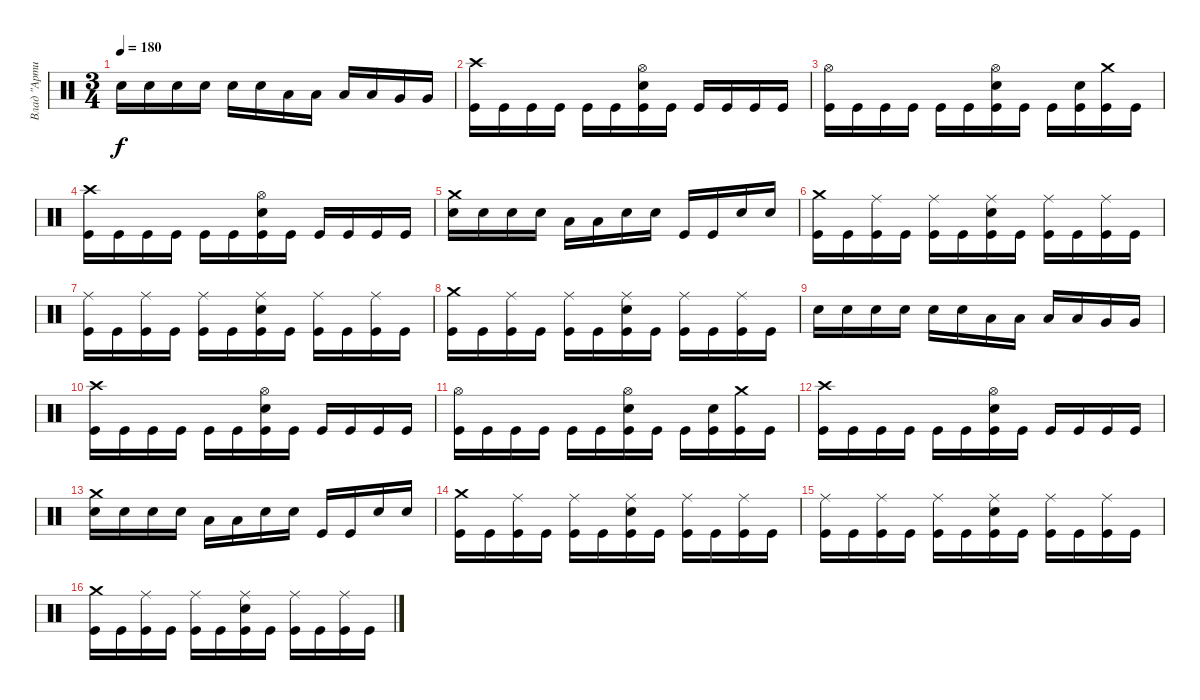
\track ("Влад \"Артист\"" "Влад \"Арти") {instrument percussion}
\staff {score}
\articulation defaults
\ts (3 4)
\tempo 180
\clef neutral
\ks c "Snare (hit) 2".16{dy f} "Snare (hit) 2".16 "Snare (hit) 2".16 "Snare (hit) 2".16 "Snare (hit) 2".16 "Snare (hit) 2".16 "Low Tom (hit)".16 "Low Tom (hit)".16 "Low Tom (hit)".16 "Low Tom (hit)".16 "Very Low Tom (hit)".16 "Very Low Tom (hit)".16
|
("Crash high (hit)" "Kick (hit)").16 "Kick (hit)".16 "Kick (hit)".16 "Kick (hit)".16 "Kick (hit)".16 "Kick (hit)".16 ("Hi-Hat (open)" "Snare (hit) 2" "Kick (hit)").16 "Kick (hit)".16 "Kick (hit)".16 "Kick (hit)".16 "Kick (hit)".16 "Kick (hit)".16 |
("Hi-Hat (open)" "Kick (hit)").16 "Kick (hit)".16 "Kick (hit)".16 "Kick (hit)".16 "Kick (hit)".16 "Kick (hit)".16 ("Snare (hit) 2" "Hi-Hat (open)" "Kick (hit)").16 "Kick (hit)".16 "Kick (hit)".16 ("Snare (hit) 2" "Kick (hit)").16 ("Crash medium (hit)" "Kick (hit)").16 "Kick (hit)".16 |
("Crash high (hit)" "Kick (hit)").16 "Kick (hit)".16 "Kick (hit)".16 "Kick (hit)".16 "Kick (hit)".16 "Kick (hit)".16 ("Hi-Hat (open)" "Snare (hit) 2" "Kick (hit)").16 "Kick (hit)".16 "Kick (hit)".16 "Kick (hit)".16 "Kick (hit)".16 "Kick (hit)".16 |
("Snare (hit) 2" "Crash medium (hit)").16 "Snare (hit) 2".16 "Snare (hit) 2".16 "Snare (hit) 2".16 "Low Tom (hit)".16 "Low Tom (hit)".16 "Snare (hit) 2".16 "Snare (hit) 2".16 "Kick (hit)".16 "Kick (hit)".16 "Snare (hit) 2".16 "Snare (hit) 2".16 |
("Crash medium (hit)" "Kick (hit)").16 "Kick (hit)".16 ("Ride (middle)" "Kick (hit)").16 "Kick (hit)".16 ("Ride (middle)" "Kick (hit)").16 "Kick (hit)".16 ("Ride (middle)" "Snare (hit) 2" "Kick (hit)").16 "Kick (hit)".16 ("Ride (middle)" "Kick (hit)").16 "Kick (hit)".16 ("Ride (middle)" "Kick (hit)").16 "Kick (hit)".16 |
("Ride (middle)" "Kick (hit)").16 "Kick (hit)".16 ("Ride (middle)" "Kick (hit)").16 "Kick (hit)".16 ("Ride (middle)" "Kick (hit)").16 "Kick (hit)".16 ("Snare (hit) 2" "Ride (middle)" "Kick (hit)").16 "Kick (hit)".16 ("Ride (middle)" "Kick (hit)").16 "Kick (hit)".16 ("Ride (middle)" "Kick (hit)").16 "Kick (hit)".16 |
("Crash medium (hit)" "Kick (hit)").16 "Kick (hit)".16 ("Ride (middle)" "Kick (hit)").16 "Kick (hit)".16 ("Ride (middle)" "Kick (hit)").16 "Kick (hit)".16 ("Ride (middle)" "Snare (hit) 2" "Kick (hit)").16 "Kick (hit)".16 ("Ride (middle)" "Kick (hit)").16 "Kick (hit)".16 ("Ride (middle)" "Kick (hit)").16 "Kick (hit)".16 |
"Snare (hit) 2".16 "Snare (hit) 2".16 "Snare (hit) 2".16 "Snare (hit) 2".16 "Snare (hit) 2".16 "Snare (hit) 2".16 "Low Tom (hit)".16 "Low Tom (hit)".16 "Low Tom (hit)".16 "Low Tom (hit)".16 "Very Low Tom (hit)".16 "Very Low Tom (hit)".16 |
("Crash high (hit)" "Kick (hit)").16 "Kick (hit)".16 "Kick (hit)".16 "Kick (hit)".16 "Kick (hit)".16 "Kick (hit)".16 ("Hi-Hat (open)" "Snare (hit) 2" "Kick (hit)").16 "Kick (hit)".16 "Kick (hit)".16 "Kick (hit)".16 "Kick (hit)".16 "Kick (hit)".16 |
("Hi-Hat (open)" "Kick (hit)").16 "Kick (hit)".16 "Kick (hit)".16 "Kick (hit)".16 "Kick (hit)".16 "Kick (hit)".16 ("Snare (hit) 2" "Hi-Hat (open)" "Kick (hit)").16 "Kick (hit)".16 "Kick (hit)".16 ("Snare (hit) 2" "Kick (hit)").16 ("Crash medium (hit)" "Kick (hit)").16 "Kick (hit)".16 |
("Crash high (hit)" "Kick (hit)").16 "Kick (hit)".16 "Kick (hit)".16 "Kick (hit)".16 "Kick (hit)".16 "Kick (hit)".16 ("Hi-Hat (open)" "Snare (hit) 2" "Kick (hit)").16 "Kick (hit)".16 "Kick (hit)".16 "Kick (hit)".16 "Kick (hit)".16 "Kick (hit)".16 |
("Snare (hit) 2" "Crash medium (hit)").16 "Snare (hit) 2".16 "Snare (hit) 2".16 "Snare (hit) 2".16 "Low Tom (hit)".16 "Low Tom (hit)".16 "Snare (hit) 2".16 "Snare (hit) 2".16 "Kick (hit)".16 "Kick (hit)".16 "Snare (hit) 2".16 "Snare (hit) 2".16 |
("Crash medium (hit)" "Kick (hit)").16 "Kick (hit)".16 ("Ride (middle)" "Kick (hit)").16 "Kick (hit)".16 ("Ride (middle)" "Kick (hit)").16 "Kick (hit)".16 ("Ride (middle)" "Snare (hit) 2" "Kick (hit)").16 "Kick (hit)".16 ("Ride (middle)" "Kick (hit)").16 "Kick (hit)".16 ("Ride (middle)" "Kick (hit)").16 "Kick (hit)".16 |
("Ride (middle)" "Kick (hit)").16 "Kick (hit)".16 ("Ride (middle)" "Kick (hit)").16 "Kick (hit)".16 ("Ride (middle)" "Kick (hit)").16 "Kick (hit)".16 ("Snare (hit) 2" "Ride (middle)" "Kick (hit)").16 "Kick (hit)".16 ("Ride (middle)" "Kick (hit)").16 "Kick (hit)".16 ("Ride (middle)" "Kick (hit)").16 "Kick (hit)".16 |
("Crash medium (hit)" "Kick (hit)").16 "Kick (hit)".16 ("Ride (middle)" "Kick (hit)").16 "Kick (hit)".16 ("Ride (middle)" "Kick (hit)").16 "Kick (hit)".16 ("Ride (middle)" "Snare (hit) 2" "Kick (hit)").16 "Kick (hit)".16 ("Ride (middle)" "Kick (hit)").16 "Kick (hit)".16 ("Ride (middle)" "Kick (hit)").16 "Kick (hit)".16
